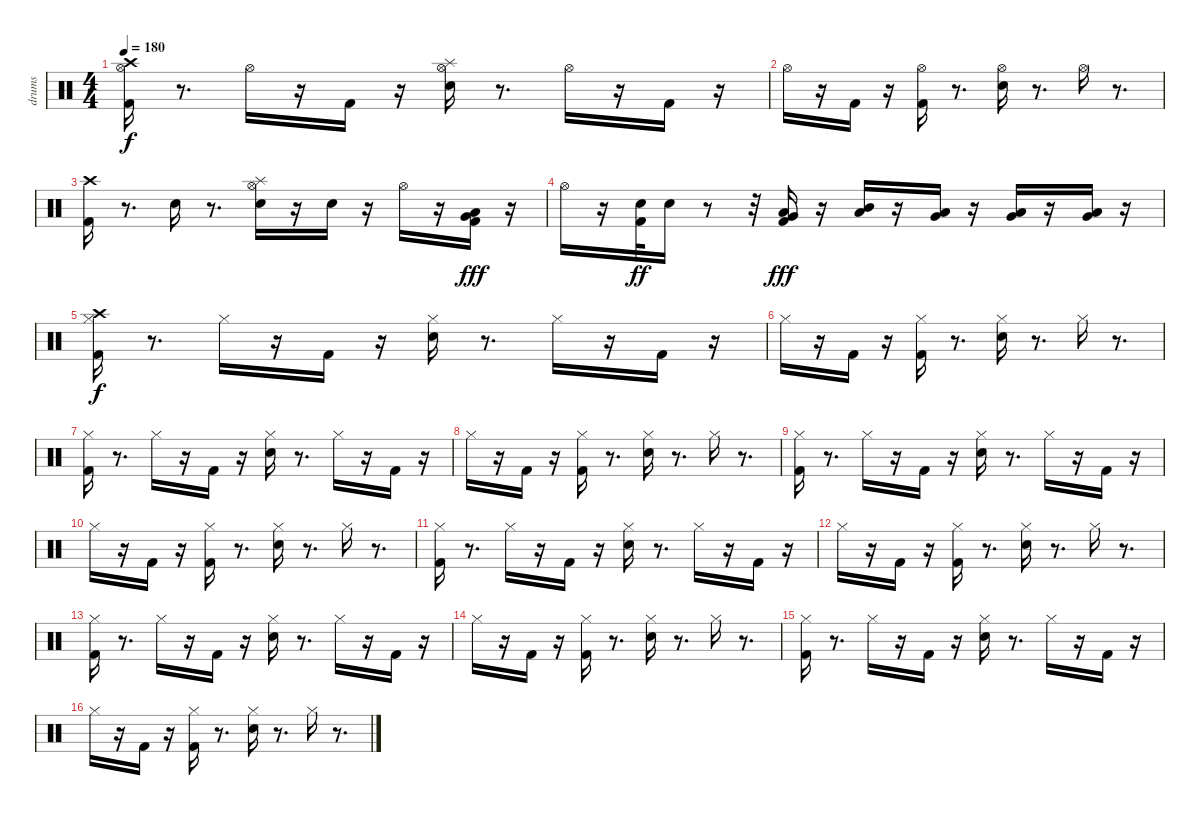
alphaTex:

\track ("drums" "drums") {instrument percussion}
\staff {score}
\articulation defaults
\ts (4 4)
\tempo 180
\clef neutral
\ks c
("Crash high (hit)" "Kick (hit) 2" "Hi-Hat (open)").16{dy f} r.8{d} "Hi-Hat (open)".16 r.16 "Kick (hit) 2".16 r.16 ("Splash (hit)" "Electric Snare (hit)" "Hi-Hat (open)").16 r.8{d} "Hi-Hat (open)".16 r.16 "Kick (hit) 2".16 r.16 |
"Hi-Hat (open)".16 r.16 "Kick (hit) 2".16 r.16 ("Hi-Hat (open)" "Kick (hit) 2").16 r.8{d} ("Hi-Hat (open)" "Electric Snare (hit)").16 r.8{d} "Hi-Hat (open)".16 r.8{d} |
("Crash high (hit)" "Kick (hit) 2").16 r.8{d} "Electric Snare (hit)".16 r.8{d} ("Splash (hit)" "Hi-Hat (open)" "Electric Snare (hit)").16 r.16 "Electric Snare (hit)".16 r.16 "Hi-Hat (open)".16 r.16 ("Very Low Tom (hit)" "Low Floor Tom (hit)" "Kick (hit) 2").16{dy fff} r.16 |
"Hi-Hat (open)".16 r.16 ("Electric Snare (hit)" "Kick (hit) 2").32{dy ff} "Electric Snare (hit)".16 r.8 r.32 ("Low Tom (hit)" "Very Low Tom (hit)" "Kick (hit) 2").16{dy fff} r.16 ("Low Tom (hit)" "Mid Tom (hit)").16 r.16 ("Very Low Tom (hit)" "Low Tom (hit)").16 r.16 ("Low Tom (hit)" "Very Low Tom (hit)").16 r.16 ("Very Low Tom (hit)" "Low Floor Tom (hit)").16 r.16 |
("Crash high (hit)" "Kick (hit) 2" "Hi-Hat (closed)").16{dy f} r.8{d} "Hi-Hat (closed)".16 r.16 "Kick (hit) 2".16 r.16 ("Electric Snare (hit)" "Hi-Hat (closed)").16 r.8{d} "Hi-Hat (closed)".16 r.16 "Kick (hit) 2".16 r.16 |
"Hi-Hat (closed)".16 r.16 "Kick (hit) 2".16 r.16 ("Hi-Hat (closed)" "Kick (hit) 2").16 r.8{d} ("Hi-Hat (closed)" "Electric Snare (hit)").16 r.8{d} "Hi-Hat (closed)".16 r.8{d} |
("Kick (hit) 2" "Hi-Hat (closed)").16 r.8{d} "Hi-Hat (closed)".16 r.16 "Kick (hit) 2".16 r.16 ("Electric Snare (hit)" "Hi-Hat (closed)").16 r.8{d} "Hi-Hat (closed)".16 r.16 "Kick (hit) 2".16 r.16 |
"Hi-Hat (closed)".16 r.16 "Kick (hit) 2".16 r.16 ("Hi-Hat (closed)" "Kick (hit) 2").16 r.8{d} ("Hi-Hat (closed)" "Electric Snare (hit)").16 r.8{d} "Hi-Hat (closed)".16 r.8{d} |
("Kick (hit) 2" "Hi-Hat (closed)").16 r.8{d} "Hi-Hat (closed)".16 r.16 "Kick (hit) 2".16 r.16 ("Electric Snare (hit)" "Hi-Hat (closed)").16 r.8{d} "Hi-Hat (closed)".16 r.16 "Kick (hit) 2".16 r.16 |
"Hi-Hat (closed)".16 r.16 "Kick (hit) 2".16 r.16 ("Hi-Hat (closed)" "Kick (hit) 2").16 r.8{d} ("Hi-Hat (closed)" "Electric Snare (hit)").16 r.8{d} "Hi-Hat (closed)".16 r.8{d} |
("Kick (hit) 2" "Hi-Hat (closed)").16 r.8{d} "Hi-Hat (closed)".16 r.16 "Kick (hit) 2".16 r.16 ("Electric Snare (hit)" "Hi-Hat (closed)").16 r.8{d} "Hi-Hat (closed)".16 r.16 "Kick (hit) 2".16 r.16 |
"Hi-Hat (closed)".16 r.16 "Kick (hit) 2".16 r.16 ("Hi-Hat (closed)" "Kick (hit) 2").16 r.8{d} ("Hi-Hat (closed)" "Electric Snare (hit)").16 r.8{d} "Hi-Hat (closed)".16 r.8{d} |
("Kick (hit) 2" "Hi-Hat (closed)").16 r.8{d} "Hi-Hat (closed)".16 r.16 "Kick (hit) 2".16 r.16 ("Electric Snare (hit)" "Hi-Hat (closed)").16 r.8{d} "Hi-Hat (closed)".16 r.16 "Kick (hit) 2".16 r.16 |
"Hi-Hat (closed)".16 r.16 "Kick (hit) 2".16 r.16 ("Hi-Hat (closed)" "Kick (hit) 2").16 r.8{d} ("Hi-Hat (closed)" "Electric Snare (hit)").16 r.8{d} "Hi-Hat (closed)".16 r.8{d} |
("Kick (hit) 2" "Hi-Hat (closed)").16 r.8{d} "Hi-Hat (closed)".16 r.16 "Kick (hit) 2".16 r.16 ("Electric Snare (hit)" "Hi-Hat (closed)").16 r.8{d} "Hi-Hat (closed)".16 r.16 "Kick (hit) 2".16 r.16 |
"Hi-Hat (closed)".16 r.16 "Kick (hit) 2".16 r.16 ("Hi-Hat (closed)" "Kick (hit) 2").16 r.8{d} ("Hi-Hat (closed)" "Electric Snare (hit)").16 r.8{d} "Hi-Hat (closed)".16 r.8{d}
